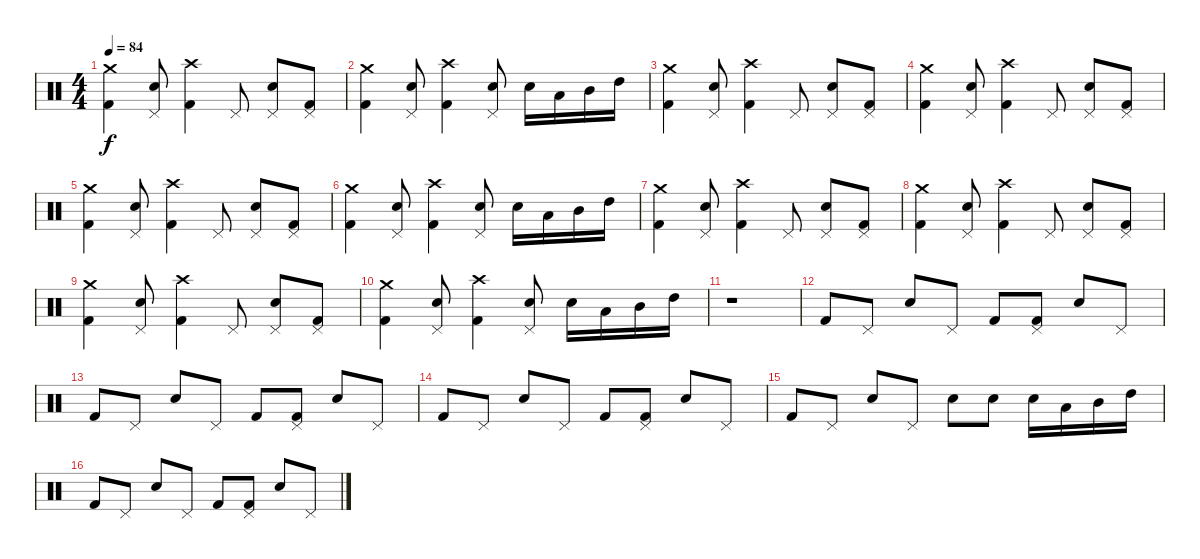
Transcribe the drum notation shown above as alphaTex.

\track "" {instrument percussion}
\staff {score}
\articulation defaults
\ts (4 4)
\tempo 84
\clef neutral
\ks c
("Crash medium (hit)" "Kick (hit) 2").4{dy f} ("Pedal Hi-Hat (hit)" "Snare (hit) 2").8 ("Crash high (hit)" "Kick (hit) 2").4 "Pedal Hi-Hat (hit)".8 ("Pedal Hi-Hat (hit)" "Snare (hit) 2").8 ("Pedal Hi-Hat (hit)" "Kick (hit) 2").8 |
("Crash medium (hit)" "Kick (hit) 2").4 ("Pedal Hi-Hat (hit)" "Snare (hit) 2").8 ("Crash high (hit)" "Kick (hit) 2").4 ("Pedal Hi-Hat (hit)" "Snare (hit) 2").8 "Snare (hit) 2".16 "Low Tom (hit)".16 "Mid Tom (hit)".16 "High Tom (hit)".16 |
("Crash medium (hit)" "Kick (hit) 2").4 ("Pedal Hi-Hat (hit)" "Snare (hit) 2").8 ("Crash high (hit)" "Kick (hit) 2").4 "Pedal Hi-Hat (hit)".8 ("Pedal Hi-Hat (hit)" "Snare (hit) 2").8 ("Pedal Hi-Hat (hit)" "Kick (hit) 2").8 |
("Crash medium (hit)" "Kick (hit) 2").4 ("Pedal Hi-Hat (hit)" "Snare (hit) 2").8 ("Crash high (hit)" "Kick (hit) 2").4 "Pedal Hi-Hat (hit)".8 ("Pedal Hi-Hat (hit)" "Snare (hit) 2").8 ("Pedal Hi-Hat (hit)" "Kick (hit) 2").8 |
("Crash medium (hit)" "Kick (hit) 2").4 ("Pedal Hi-Hat (hit)" "Snare (hit) 2").8 ("Crash high (hit)" "Kick (hit) 2").4 "Pedal Hi-Hat (hit)".8 ("Pedal Hi-Hat (hit)" "Snare (hit) 2").8 ("Pedal Hi-Hat (hit)" "Kick (hit) 2").8 |
("Crash medium (hit)" "Kick (hit) 2").4 ("Pedal Hi-Hat (hit)" "Snare (hit) 2").8 ("Crash high (hit)" "Kick (hit) 2").4 ("Pedal Hi-Hat (hit)" "Snare (hit) 2").8 "Snare (hit) 2".16 "Low Tom (hit)".16 "Mid Tom (hit)".16 "High Tom (hit)".16 |
("Crash medium (hit)" "Kick (hit) 2").4 ("Pedal Hi-Hat (hit)" "Snare (hit) 2").8 ("Crash high (hit)" "Kick (hit) 2").4 "Pedal Hi-Hat (hit)".8 ("Pedal Hi-Hat (hit)" "Snare (hit) 2").8 ("Pedal Hi-Hat (hit)" "Kick (hit) 2").8 |
("Crash medium (hit)" "Kick (hit) 2").4 ("Pedal Hi-Hat (hit)" "Snare (hit) 2").8 ("Crash high (hit)" "Kick (hit) 2").4 "Pedal Hi-Hat (hit)".8 ("Pedal Hi-Hat (hit)" "Snare (hit) 2").8 ("Pedal Hi-Hat (hit)" "Kick (hit) 2").8 |
("Crash medium (hit)" "Kick (hit) 2").4 ("Pedal Hi-Hat (hit)" "Snare (hit) 2").8 ("Crash high (hit)" "Kick (hit) 2").4 "Pedal Hi-Hat (hit)".8 ("Pedal Hi-Hat (hit)" "Snare (hit) 2").8 ("Pedal Hi-Hat (hit)" "Kick (hit) 2").8 |
("Crash medium (hit)" "Kick (hit) 2").4 ("Pedal Hi-Hat (hit)" "Snare (hit) 2").8 ("Crash high (hit)" "Kick (hit) 2").4 ("Pedal Hi-Hat (hit)" "Snare (hit) 2").8 "Snare (hit) 2".16 "Low Tom (hit)".16 "Mid Tom (hit)".16 "High Tom (hit)".16 |
r.1 |
"Kick (hit) 2".8 "Pedal Hi-Hat (hit)".8 "Snare (hit) 2".8 "Pedal Hi-Hat (hit)".8 "Kick (hit) 2".8 ("Pedal Hi-Hat (hit)" "Kick (hit) 2").8 "Snare (hit) 2".8 "Pedal Hi-Hat (hit)".8 |
"Kick (hit) 2".8 "Pedal Hi-Hat (hit)".8 "Snare (hit) 2".8 "Pedal Hi-Hat (hit)".8 "Kick (hit) 2".8 ("Pedal Hi-Hat (hit)" "Kick (hit) 2").8 "Snare (hit) 2".8 "Pedal Hi-Hat (hit)".8 |
"Kick (hit) 2".8 "Pedal Hi-Hat (hit)".8 "Snare (hit) 2".8 "Pedal Hi-Hat (hit)".8 "Kick (hit) 2".8 ("Pedal Hi-Hat (hit)" "Kick (hit) 2").8 "Snare (hit) 2".8 "Pedal Hi-Hat (hit)".8 |
"Kick (hit) 2".8 "Pedal Hi-Hat (hit)".8 "Snare (hit) 2".8 "Pedal Hi-Hat (hit)".8 "Electric Snare (hit)".8 "Electric Snare (hit)".8 "Electric Snare (hit)".16 "Low Tom (hit)".16 "Mid Tom (hit)".16 "High Tom (hit)".16 |
"Kick (hit) 2".8 "Pedal Hi-Hat (hit)".8 "Snare (hit) 2".8 "Pedal Hi-Hat (hit)".8 "Kick (hit) 2".8 ("Pedal Hi-Hat (hit)" "Kick (hit) 2").8 "Snare (hit) 2".8 "Pedal Hi-Hat (hit)".8
